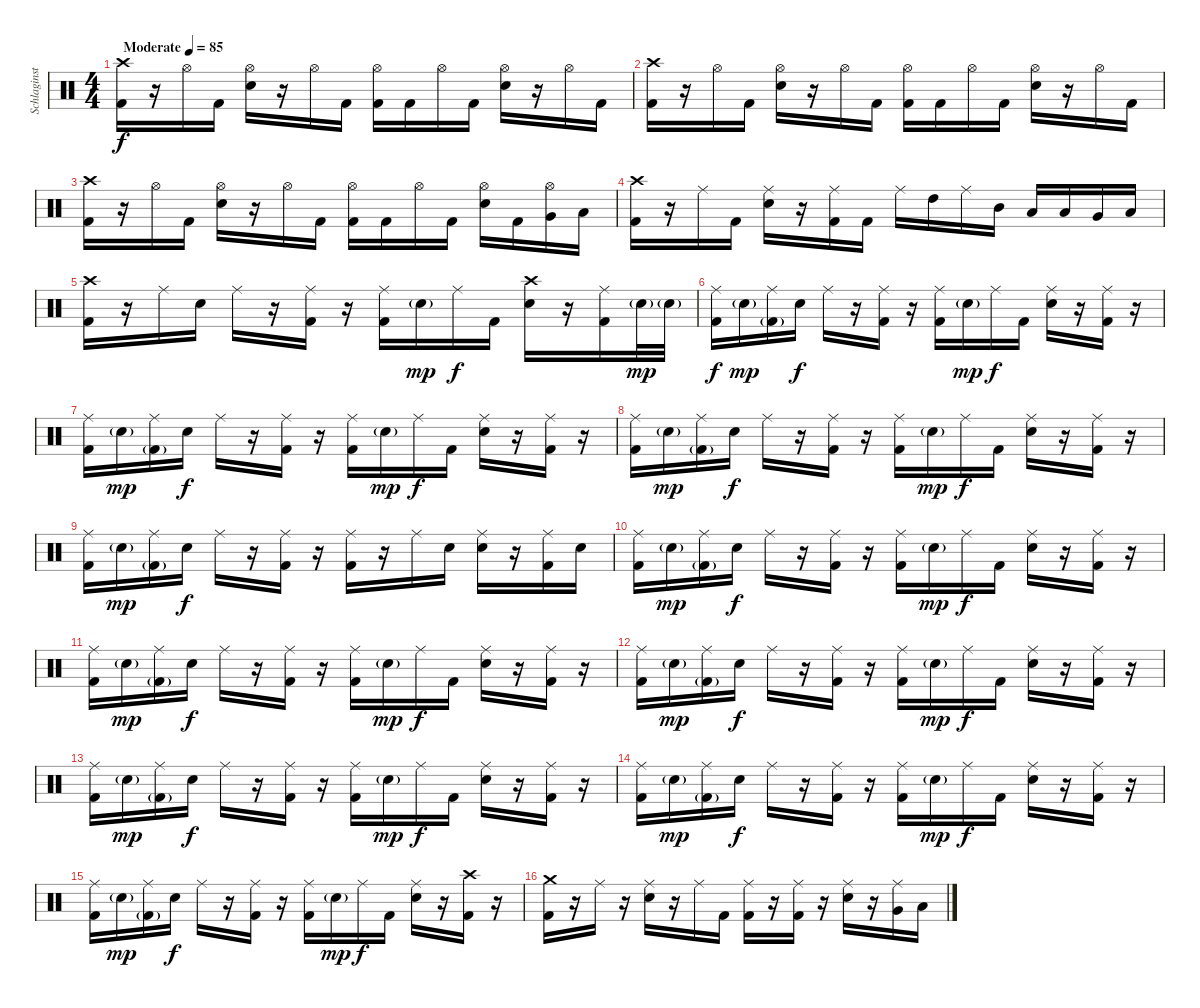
\track ("Schlaginstrumente - Auswahl" "Schlaginst") {instrument percussion}
\staff {score}
\articulation defaults
\ts (4 4)
\tempo (85 "Moderate")
\clef neutral
\ks c
("Crash high (hit)" "Kick (hit) 2").16{dy f} r.16 "Hi-Hat (open)".16 "Kick (hit) 2".16 ("Hi-Hat (open)" "Snare (hit) 2").16 r.16 "Hi-Hat (open)".16 "Kick (hit) 2".16 ("Hi-Hat (open)" "Kick (hit) 2").16 "Kick (hit) 2".16 "Hi-Hat (open)".16 "Kick (hit) 2".16 ("Hi-Hat (open)" "Snare (hit) 2").16 r.16 "Hi-Hat (open)".16 "Kick (hit) 2".16 |
("Crash high (hit)" "Kick (hit) 2").16 r.16 "Hi-Hat (open)".16 "Kick (hit) 2".16 ("Hi-Hat (open)" "Snare (hit) 2").16 r.16 "Hi-Hat (open)".16 "Kick (hit) 2".16 ("Hi-Hat (open)" "Kick (hit) 2").16 "Kick (hit) 2".16 "Hi-Hat (open)".16 "Kick (hit) 2".16 ("Hi-Hat (open)" "Snare (hit) 2").16 r.16 "Hi-Hat (open)".16 "Kick (hit) 2".16 |
("Crash high (hit)" "Kick (hit) 2").16 r.16 "Hi-Hat (open)".16 "Kick (hit) 2".16 ("Hi-Hat (open)" "Snare (hit) 2").16 r.16 "Hi-Hat (open)".16 "Kick (hit) 2".16 ("Hi-Hat (open)" "Kick (hit) 2").16 "Kick (hit) 2".16 "Hi-Hat (open)".16 "Kick (hit) 2".16 ("Hi-Hat (open)" "Snare (hit) 2").16 "Kick (hit) 2".16 ("Hi-Hat (open)" "Very Low Tom (hit)").16 "Low Floor Tom (hit)".16 |
("Crash high (hit)" "Kick (hit) 2").16 r.16 "Ride (middle)".16 "Kick (hit) 2".16 ("Ride (middle)" "Snare (hit) 2").16 r.16 ("Ride (middle)" "Kick (hit) 2").16 "Kick (hit) 2".16 "Ride (middle)".16 "High Tom (hit)".16 "Ride (middle)".16 "Mid Tom (hit)".16 "Low Tom (hit)".16 "Low Tom (hit)".16 "Very Low Tom (hit)".16 "Low Floor Tom (hit)".16 |
("Crash high (hit)" "Kick (hit) 2").16 r.16 "Ride (middle)".16 "Snare (hit) 2".16 "Ride (middle)".16 r.16 ("Ride (middle)" "Kick (hit) 2").16 r.16 ("Ride (middle)" "Kick (hit) 2").16 "Snare (hit) 2"{g}.16{dy mp} "Ride (middle)".16{dy f} "Kick (hit) 2".16 ("Crash high (hit)" "Snare (hit) 2").16 r.16 ("Ride (middle)" "Kick (hit) 2").16 "Snare (hit) 2"{g}.32{dy mp} "Snare (hit) 2"{g}.32 |
("Ride (middle)" "Kick (hit) 2").16{dy f} "Snare (hit) 2"{g}.16{dy mp} ("Ride (middle)" "Kick (hit) 2"{g}).16 "Snare (hit) 2".16{dy f} "Ride (middle)".16 r.16 ("Ride (middle)" "Kick (hit) 2").16 r.16 ("Ride (middle)" "Kick (hit) 2").16 "Snare (hit) 2"{g}.16{dy mp} "Ride (middle)".16{dy f} "Kick (hit) 2".16 ("Ride (middle)" "Snare (hit) 2").16 r.16 ("Ride (middle)" "Kick (hit) 2").16 r.16 |
("Ride (middle)" "Kick (hit) 2").16 "Snare (hit) 2"{g}.16{dy mp} ("Ride (middle)" "Kick (hit) 2"{g}).16 "Snare (hit) 2".16{dy f} "Ride (middle)".16 r.16 ("Ride (middle)" "Kick (hit) 2").16 r.16 ("Ride (middle)" "Kick (hit) 2").16 "Snare (hit) 2"{g}.16{dy mp} "Ride (middle)".16{dy f} "Kick (hit) 2".16 ("Ride (middle)" "Snare (hit) 2").16 r.16 ("Ride (middle)" "Kick (hit) 2").16 r.16 |
("Ride (middle)" "Kick (hit) 2").16 "Snare (hit) 2"{g}.16{dy mp} ("Ride (middle)" "Kick (hit) 2"{g}).16 "Snare (hit) 2".16{dy f} "Ride (middle)".16 r.16 ("Ride (middle)" "Kick (hit) 2").16 r.16 ("Ride (middle)" "Kick (hit) 2").16 "Snare (hit) 2"{g}.16{dy mp} "Ride (middle)".16{dy f} "Kick (hit) 2".16 ("Ride (middle)" "Snare (hit) 2").16 r.16 ("Ride (middle)" "Kick (hit) 2").16 r.16 |
("Ride (middle)" "Kick (hit) 2").16 "Snare (hit) 2"{g}.16{dy mp} ("Ride (middle)" "Kick (hit) 2"{g}).16 "Snare (hit) 2".16{dy f} "Ride (middle)".16 r.16 ("Ride (middle)" "Kick (hit) 2").16 r.16 ("Ride (middle)" "Kick (hit) 2").16 r.16 "Ride (middle)".16 "Snare (hit) 2".16 ("Ride (middle)" "Snare (hit) 2").16 r.16 ("Ride (middle)" "Kick (hit) 2").16 "Snare (hit) 2".16 |
("Ride (middle)" "Kick (hit) 2").16 "Snare (hit) 2"{g}.16{dy mp} ("Ride (middle)" "Kick (hit) 2"{g}).16 "Snare (hit) 2".16{dy f} "Ride (middle)".16 r.16 ("Ride (middle)" "Kick (hit) 2").16 r.16 ("Ride (middle)" "Kick (hit) 2").16 "Snare (hit) 2"{g}.16{dy mp} "Ride (middle)".16{dy f} "Kick (hit) 2".16 ("Ride (middle)" "Snare (hit) 2").16 r.16 ("Ride (middle)" "Kick (hit) 2").16 r.16 |
("Ride (middle)" "Kick (hit) 2").16 "Snare (hit) 2"{g}.16{dy mp} ("Ride (middle)" "Kick (hit) 2"{g}).16 "Snare (hit) 2".16{dy f} "Ride (middle)".16 r.16 ("Ride (middle)" "Kick (hit) 2").16 r.16 ("Ride (middle)" "Kick (hit) 2").16 "Snare (hit) 2"{g}.16{dy mp} "Ride (middle)".16{dy f} "Kick (hit) 2".16 ("Ride (middle)" "Snare (hit) 2").16 r.16 ("Ride (middle)" "Kick (hit) 2").16 r.16 |
("Ride (middle)" "Kick (hit) 2").16 "Snare (hit) 2"{g}.16{dy mp} ("Ride (middle)" "Kick (hit) 2"{g}).16 "Snare (hit) 2".16{dy f} "Ride (middle)".16 r.16 ("Ride (middle)" "Kick (hit) 2").16 r.16 ("Ride (middle)" "Kick (hit) 2").16 "Snare (hit) 2"{g}.16{dy mp} "Ride (middle)".16{dy f} "Kick (hit) 2".16 ("Ride (middle)" "Snare (hit) 2").16 r.16 ("Ride (middle)" "Kick (hit) 2").16 r.16 |
("Ride (middle)" "Kick (hit) 2").16 "Snare (hit) 2"{g}.16{dy mp} ("Ride (middle)" "Kick (hit) 2"{g}).16 "Snare (hit) 2".16{dy f} "Ride (middle)".16 r.16 ("Ride (middle)" "Kick (hit) 2").16 r.16 ("Ride (middle)" "Kick (hit) 2").16 "Snare (hit) 2"{g}.16{dy mp} "Ride (middle)".16{dy f} "Kick (hit) 2".16 ("Ride (middle)" "Snare (hit) 2").16 r.16 ("Ride (middle)" "Kick (hit) 2").16 r.16 |
("Ride (middle)" "Kick (hit) 2").16 "Snare (hit) 2"{g}.16{dy mp} ("Ride (middle)" "Kick (hit) 2"{g}).16 "Snare (hit) 2".16{dy f} "Ride (middle)".16 r.16 ("Ride (middle)" "Kick (hit) 2").16 r.16 ("Ride (middle)" "Kick (hit) 2").16 "Snare (hit) 2"{g}.16{dy mp} "Ride (middle)".16{dy f} "Kick (hit) 2".16 ("Ride (middle)" "Snare (hit) 2").16 r.16 ("Ride (middle)" "Kick (hit) 2").16 r.16 |
("Ride (middle)" "Kick (hit) 2").16 "Snare (hit) 2"{g}.16{dy mp} ("Ride (middle)" "Kick (hit) 2"{g}).16 "Snare (hit) 2".16{dy f} "Ride (middle)".16 r.16 ("Ride (middle)" "Kick (hit) 2").16 r.16 ("Ride (middle)" "Kick (hit) 2").16 "Snare (hit) 2"{g}.16{dy mp} "Ride (middle)".16{dy f} "Kick (hit) 2".16 ("Ride (middle)" "Snare (hit) 2").16 r.16 ("Crash high (hit)" "Kick (hit) 2").16 r.16 |
("Crash medium (hit)" "Kick (hit) 2").16 r.16 "Ride (middle)".16 r.16 ("Ride (middle)" "Snare (hit) 2").16 r.16 "Ride (middle)".16 "Kick (hit) 2".16 ("Ride (middle)" "Kick (hit) 2").16 r.16 ("Ride (middle)" "Kick (hit) 2").16 r.16 ("Ride (middle)" "Snare (hit) 2").16 r.16 ("Ride (middle)" "Very Low Tom (hit)").16 "Low Floor Tom (hit)".16
